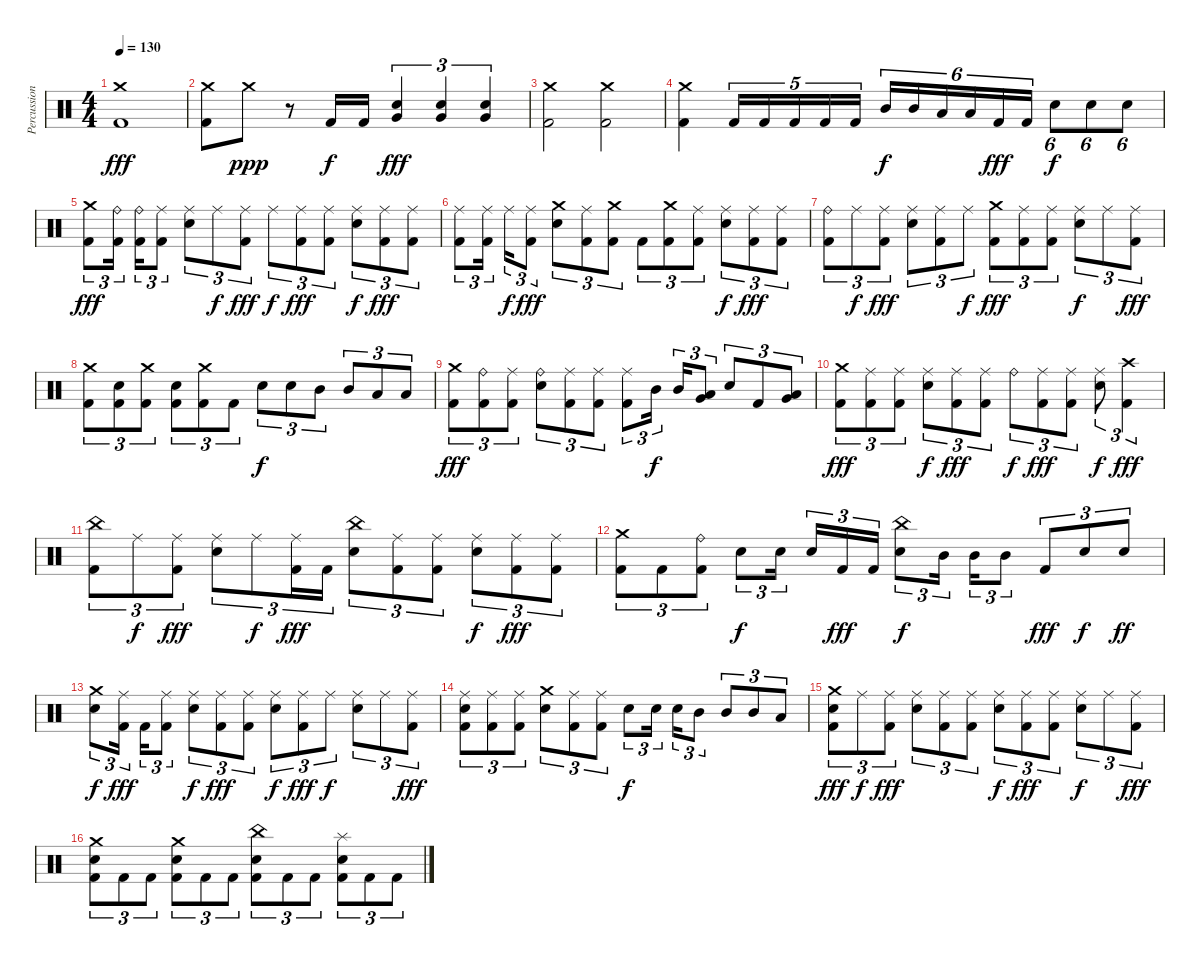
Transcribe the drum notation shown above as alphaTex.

\track ("Percussion" "Percussion") {instrument percussion}
\staff {score}
\articulation defaults
\ts (4 4)
\tempo 130
\clef neutral
\ks c
("Crash medium (hit)" "Kick (hit) 2").1{dy fff} |
("Crash medium (hit)" "Kick (hit) 2").8 "Crash medium (hit)".8{dy ppp} r.8 "Kick (hit) 2".16{dy f} "Kick (hit) 2".16 ("Very Low Tom (hit)" "Electric Snare (hit)").4{tu (3 2) dy fff} ("Very Low Tom (hit)" "Electric Snare (hit)").4{tu (3 2)} ("Very Low Tom (hit)" "Electric Snare (hit)").4{tu (3 2)} |
("Crash medium (hit)" "Kick (hit) 2").2 ("Crash medium (hit)" "Kick (hit) 2").2 |
("Crash medium (hit)" "Kick (hit) 2").4 "Kick (hit) 2".16{tu (5 4)} "Kick (hit) 2".16{tu (5 4)} "Kick (hit) 2".16{tu (5 4)} "Kick (hit) 2".16{tu (5 4)} "Kick (hit) 2".16{tu (5 4)} "Mid Tom (hit)".16{tu (6 4) dy f} "Mid Tom (hit)".16{tu (6 4)} "Low Tom (hit)".16{tu (6 4)} "Low Tom (hit)".16{tu (6 4)} "Kick (hit) 2".16{tu (6 4) dy fff} "Kick (hit) 2".16{tu (6 4)} "Electric Snare (hit)".8{tu (6 4) dy f} "Electric Snare (hit)".8{tu (6 4)} "Electric Snare (hit)".8{tu (6 4)} |
("Crash medium (hit)" "Kick (hit) 2").8{tu (3 2) dy fff} ("Ride (bell)" "Kick (hit) 2").16{tu (3 2)} ("Ride (bell)" "Kick (hit) 2").16{tu (3 2)} ("Ride (middle)" "Kick (hit) 2").8{tu (3 2)} ("Ride (middle)" "Electric Snare (hit)").8{tu (3 2)} "Ride (middle)".8{tu (3 2) dy f} ("Ride (middle)" "Kick (hit) 2").8{tu (3 2) dy fff} "Ride (middle)".8{tu (3 2) dy f} ("Ride (middle)" "Kick (hit) 2").8{tu (3 2) dy fff} ("Ride (middle)" "Kick (hit) 2").8{tu (3 2)} ("Ride (middle)" "Electric Snare (hit)").8{tu (3 2) dy f} ("Ride (middle)" "Kick (hit) 2").8{tu (3 2) dy fff} ("Ride (middle)" "Kick (hit) 2").8{tu (3 2)} |
("Ride (middle)" "Kick (hit) 2").8{tu (3 2)} ("Ride (middle)" "Kick (hit) 2").16{tu (3 2)} "Ride (middle)".16{tu (3 2) dy f} ("Ride (middle)" "Kick (hit) 2").8{tu (3 2) dy fff} ("Crash medium (hit)" "Electric Snare (hit)").8{tu (3 2)} ("Ride (middle)" "Kick (hit) 2").8{tu (3 2)} ("Crash medium (hit)" "Kick (hit) 2").8{tu (3 2)} "Kick (hit) 2".8{tu (3 2)} ("Crash medium (hit)" "Kick (hit) 2").8{tu (3 2)} ("Ride (middle)" "Kick (hit) 2").8{tu (3 2)} ("Ride (middle)" "Electric Snare (hit)").8{tu (3 2) dy f} ("Ride (middle)" "Kick (hit) 2").8{tu (3 2) dy fff} ("Ride (middle)" "Kick (hit) 2").8{tu (3 2)} |
("Ride (bell)" "Kick (hit) 2").8{tu (3 2)} "Ride (middle)".8{tu (3 2) dy f} ("Ride (middle)" "Kick (hit) 2").8{tu (3 2) dy fff} ("Ride (middle)" "Electric Snare (hit)").8{tu (3 2)} ("Ride (middle)" "Kick (hit) 2").8{tu (3 2)} "Ride (middle)".8{tu (3 2) dy f} ("Crash medium (hit)" "Kick (hit) 2").8{tu (3 2) dy fff} ("Ride (middle)" "Kick (hit) 2").8{tu (3 2)} ("Ride (middle)" "Kick (hit) 2").8{tu (3 2)} ("Ride (middle)" "Electric Snare (hit)").8{tu (3 2) dy f} "Ride (middle)".8{tu (3 2)} ("Ride (middle)" "Kick (hit) 2").8{tu (3 2) dy fff} |
("Crash medium (hit)" "Kick (hit) 2").8{tu (3 2)} ("Electric Snare (hit)" "Kick (hit) 2").8{tu (3 2)} ("Crash medium (hit)" "Kick (hit) 2").8{tu (3 2)} ("Electric Snare (hit)" "Kick (hit) 2").8{tu (3 2)} ("Crash medium (hit)" "Kick (hit) 2").8{tu (3 2)} "Kick (hit) 2".8{tu (3 2)} "Electric Snare (hit)".8{tu (3 2) dy f} "Electric Snare (hit)".8{tu (3 2)} "Mid Tom (hit)".8{tu (3 2)} "Mid Tom (hit)".8{tu (3 2)} "Low Tom (hit)".8{tu (3 2)} "Low Tom (hit)".8{tu (3 2)} |
("Crash medium (hit)" "Kick (hit) 2").8{tu (3 2) dy fff} ("Ride (bell)" "Kick (hit) 2").8{tu (3 2)} ("Ride (middle)" "Kick (hit) 2").8{tu (3 2)} ("Ride (bell)" "Electric Snare (hit)").8{tu (3 2)} ("Ride (middle)" "Kick (hit) 2").8{tu (3 2)} ("Ride (middle)" "Kick (hit) 2").8{tu (3 2)} ("Ride (middle)" "Kick (hit) 2").8{tu (3 2)} "Mid Tom (hit)".16{tu (3 2) dy f} "Mid Tom (hit)".16{tu (3 2)} ("Low Tom (hit)" "Very Low Tom (hit)").8{tu (3 2)} "Electric Snare (hit)".8{tu (3 2)} "Kick (hit) 2".8{tu (3 2)} ("Very Low Tom (hit)" "Low Floor Tom (hit)").8{tu (3 2)} |
("Crash medium (hit)" "Kick (hit) 2").8{tu (3 2) dy fff} ("Ride (middle)" "Kick (hit) 2").8{tu (3 2)} ("Ride (middle)" "Kick (hit) 2").8{tu (3 2)} ("Ride (middle)" "Electric Snare (hit)").8{tu (3 2) dy f} ("Ride (middle)" "Kick (hit) 2").8{tu (3 2) dy fff} ("Ride (middle)" "Kick (hit) 2").8{tu (3 2)} "Ride (bell)".8{tu (3 2) dy f} ("Ride (middle)" "Kick (hit) 2").8{tu (3 2) dy fff} ("Ride (middle)" "Kick (hit) 2").8{tu (3 2)} ("Ride (middle)" "Electric Snare (hit)").8{tu (3 2) dy f} ("Crash high (hit)" "Kick (hit) 2").4{tu (3 2) dy fff} |
("China (hit)" "Kick (hit) 2").8{tu (3 2)} "Ride (middle)".8{tu (3 2) dy f} ("Ride (middle)" "Kick (hit) 2").8{tu (3 2) dy fff} ("Ride (middle)" "Electric Snare (hit)").8{tu (3 2)} "Ride (middle)".8{tu (3 2) dy f} ("Ride (middle)" "Kick (hit) 2").16{tu (3 2) dy fff} "Kick (hit) 2".16{tu (3 2)} ("China (hit)" "Electric Snare (hit)").8{tu (3 2)} ("Ride (middle)" "Kick (hit) 2").8{tu (3 2)} ("Ride (middle)" "Kick (hit) 2").8{tu (3 2)} ("Ride (middle)" "Electric Snare (hit)").8{tu (3 2) dy f} ("Ride (middle)" "Kick (hit) 2").8{tu (3 2) dy fff} ("Ride (middle)" "Kick (hit) 2").8{tu (3 2)} |
("Crash medium (hit)" "Kick (hit) 2").8{tu (3 2)} "Kick (hit) 2".8{tu (3 2)} ("Ride (bell)" "Kick (hit) 2").8{tu (3 2)} "Electric Snare (hit)".8{tu (3 2) dy f} "Electric Snare (hit)".16{tu (3 2)} "Electric Snare (hit)".16{tu (3 2)} "Kick (hit) 2".16{tu (3 2) dy fff} "Kick (hit) 2".16{tu (3 2)} ("China (hit)" "Electric Snare (hit)").8{tu (3 2) dy f} "Mid Tom (hit)".16{tu (3 2)} "Mid Tom (hit)".16{tu (3 2)} "Mid Tom (hit)".8{tu (3 2)} "Kick (hit) 2".8{tu (3 2) dy fff} "Electric Snare (hit)".8{tu (3 2) dy f} "Electric Snare (hit)".8{tu (3 2) dy ff} |
("Crash medium (hit)" "Electric Snare (hit)").8{tu (3 2) dy f} ("Ride (middle)" "Kick (hit) 2").16{tu (3 2) dy fff} "Kick (hit) 2".16{tu (3 2)} ("Ride (middle)" "Kick (hit) 2").8{tu (3 2)} ("Ride (middle)" "Electric Snare (hit)").8{tu (3 2) dy f} ("Ride (middle)" "Kick (hit) 2").8{tu (3 2) dy fff} ("Ride (middle)" "Kick (hit) 2").8{tu (3 2)} ("Ride (middle)" "Electric Snare (hit)").8{tu (3 2) dy f} ("Ride (middle)" "Kick (hit) 2").8{tu (3 2) dy fff} "Ride (middle)".8{tu (3 2) dy f} ("Ride (middle)" "Electric Snare (hit)").8{tu (3 2)} "Ride (middle)".8{tu (3 2)} ("Ride (middle)" "Kick (hit) 2").8{tu (3 2) dy fff} |
("Ride (middle)" "Electric Snare (hit)" "Kick (hit) 2").8{tu (3 2)} ("Ride (middle)" "Kick (hit) 2").8{tu (3 2)} ("Ride (middle)" "Kick (hit) 2").8{tu (3 2)} ("Crash medium (hit)" "Electric Snare (hit)").8{tu (3 2)} ("Ride (middle)" "Kick (hit) 2").8{tu (3 2)} ("Ride (middle)" "Kick (hit) 2").8{tu (3 2)} "Electric Snare (hit)".8{tu (3 2) dy f} "Electric Snare (hit)".16{tu (3 2)} "Electric Snare (hit)".16{tu (3 2)} "Mid Tom (hit)".8{tu (3 2)} "Mid Tom (hit)".8{tu (3 2)} "Mid Tom (hit)".8{tu (3 2)} "Low Tom (hit)".8{tu (3 2)} |
("Crash medium (hit)" "Electric Snare (hit)" "Kick (hit) 2").8{tu (3 2) dy fff} "Ride (middle)".8{tu (3 2) dy f} ("Ride (middle)" "Kick (hit) 2").8{tu (3 2) dy fff} ("Ride (middle)" "Electric Snare (hit)").8{tu (3 2)} ("Ride (middle)" "Kick (hit) 2").8{tu (3 2)} ("Ride (middle)" "Kick (hit) 2").8{tu (3 2)} ("Ride (middle)" "Electric Snare (hit)").8{tu (3 2) dy f} ("Ride (middle)" "Kick (hit) 2").8{tu (3 2) dy fff} ("Ride (middle)" "Kick (hit) 2").8{tu (3 2)} ("Ride (middle)" "Electric Snare (hit)").8{tu (3 2) dy f} "Ride (middle)".8{tu (3 2)} ("Ride (middle)" "Kick (hit) 2").8{tu (3 2) dy fff} |
("Crash medium (hit)" "Electric Snare (hit)" "Kick (hit) 2").8{tu (3 2)} "Kick (hit) 2".8{tu (3 2)} "Kick (hit) 2".8{tu (3 2)} ("Crash medium (hit)" "Electric Snare (hit)" "Kick (hit) 2").8{tu (3 2)} "Kick (hit) 2".8{tu (3 2)} "Kick (hit) 2".8{tu (3 2)} ("China (hit)" "Electric Snare (hit)" "Kick (hit) 2").8{tu (3 2)} "Kick (hit) 2".8{tu (3 2)} "Kick (hit) 2".8{tu (3 2)} ("Splash (hit)" "Electric Snare (hit)" "Kick (hit) 2").8{tu (3 2)} "Kick (hit) 2".8{tu (3 2)} "Kick (hit) 2".8{tu (3 2)}
